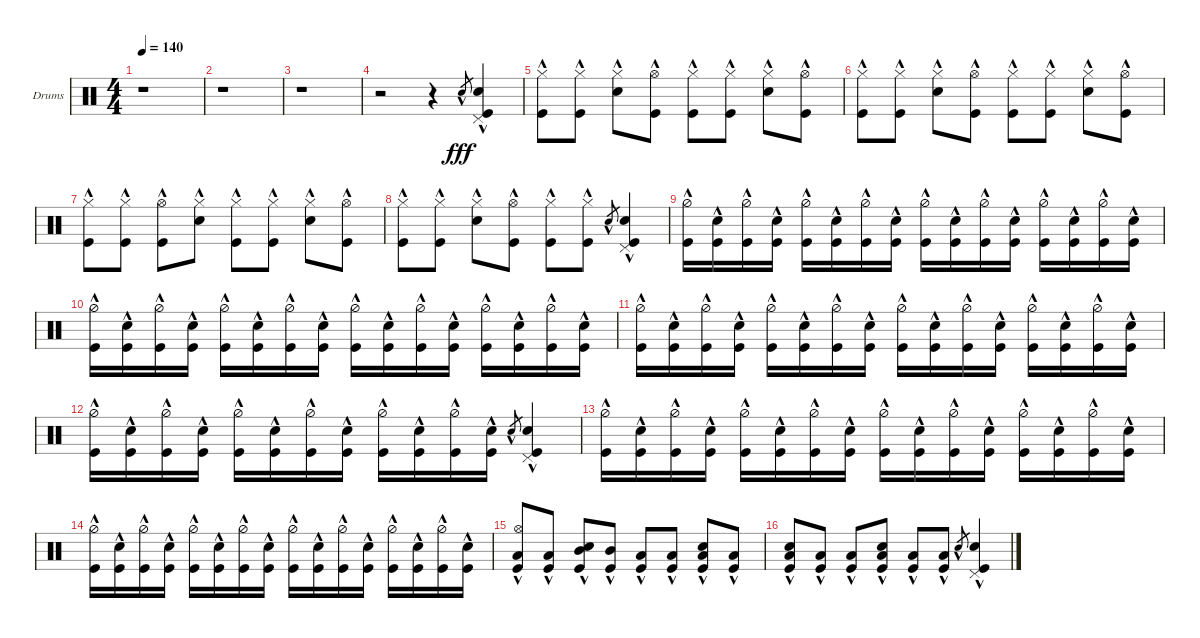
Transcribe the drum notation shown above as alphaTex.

\bracketExtendMode groupsimilarinstruments
\firstSystemTrackNameOrientation horizontal
\otherSystemsTrackNameOrientation horizontal
\track ("BigMc" "Drums") {instrument percussion}
\staff {score}
\articulation defaults
\ts (4 4)
\tempo 140
\clef neutral
\ks c
r.1{dy fff} |
r.1 |
r.1 |
r.2 r.4 "Snare (hit) 2"{hac}.8{gr} ("Snare (hit) 2"{hac} "Pedal Hi-Hat (hit)"{hac} "Kick (hit)"{hac}).4 |
("Hi-Hat (closed)"{hac} "Kick (hit)"{hac}).8 ("Hi-Hat (closed)"{hac} "Kick (hit)"{hac}).8 ("Hi-Hat (closed)"{hac} "Snare (hit) 2"{hac}).8 ("Hi-Hat (open)"{hac} "Kick (hit)"{hac}).8 ("Hi-Hat (closed)"{hac} "Kick (hit)"{hac}).8 ("Hi-Hat (closed)"{hac} "Kick (hit)"{hac}).8 ("Hi-Hat (closed)"{hac} "Snare (hit) 2"{hac}).8 ("Hi-Hat (open)"{hac} "Kick (hit)"{hac}).8 |
("Hi-Hat (closed)"{hac} "Kick (hit)"{hac}).8 ("Hi-Hat (closed)"{hac} "Kick (hit)"{hac}).8 ("Hi-Hat (closed)"{hac} "Snare (hit) 2"{hac}).8 ("Hi-Hat (open)"{hac} "Kick (hit)"{hac}).8 ("Hi-Hat (closed)"{hac} "Kick (hit)"{hac}).8 ("Hi-Hat (closed)"{hac} "Kick (hit)"{hac}).8 ("Hi-Hat (closed)"{hac} "Snare (hit) 2"{hac}).8 ("Hi-Hat (open)"{hac} "Kick (hit)"{hac}).8 |
("Hi-Hat (closed)"{hac} "Kick (hit)"{hac}).8 ("Hi-Hat (closed)"{hac} "Kick (hit)"{hac}).8 ("Hi-Hat (open)"{hac} "Kick (hit)"{hac}).8 ("Hi-Hat (closed)"{hac} "Snare (hit) 2"{hac}).8 ("Hi-Hat (closed)"{hac} "Kick (hit)"{hac}).8 ("Hi-Hat (closed)"{hac} "Kick (hit)"{hac}).8 ("Hi-Hat (closed)"{hac} "Snare (hit) 2"{hac}).8 ("Hi-Hat (open)"{hac} "Kick (hit)"{hac}).8 |
("Hi-Hat (closed)"{hac} "Kick (hit)"{hac}).8 ("Hi-Hat (closed)"{hac} "Kick (hit)"{hac}).8 ("Hi-Hat (closed)"{hac} "Snare (hit) 2"{hac}).8 ("Hi-Hat (open)"{hac} "Kick (hit)"{hac}).8 ("Hi-Hat (closed)"{hac} "Kick (hit)"{hac}).8 ("Hi-Hat (closed)"{hac} "Kick (hit)"{hac}).8 "Snare (hit) 2"{hac}.8{gr} ("Snare (hit) 2"{hac} "Pedal Hi-Hat (hit)"{hac} "Kick (hit)"{hac}).4 |
("Hi-Hat (half)"{hac} "Kick (hit)"{hac}).16 ("Snare (hit) 2"{hac} "Kick (hit)"{hac}).16 ("Hi-Hat (half)"{hac} "Kick (hit)"{hac}).16 ("Snare (hit) 2"{hac} "Kick (hit)"{hac}).16 ("Hi-Hat (half)"{hac} "Kick (hit)"{hac}).16 ("Snare (hit) 2"{hac} "Kick (hit)"{hac}).16 ("Hi-Hat (half)"{hac} "Kick (hit)"{hac}).16 ("Snare (hit) 2"{hac} "Kick (hit)"{hac}).16 ("Hi-Hat (half)"{hac} "Kick (hit)"{hac}).16 ("Snare (hit) 2"{hac} "Kick (hit)"{hac}).16 ("Hi-Hat (half)"{hac} "Kick (hit)"{hac}).16 ("Snare (hit) 2"{hac} "Kick (hit)"{hac}).16 ("Hi-Hat (half)"{hac} "Kick (hit)"{hac}).16 ("Snare (hit) 2"{hac} "Kick (hit)"{hac}).16 ("Hi-Hat (half)"{hac} "Kick (hit)"{hac}).16 ("Snare (hit) 2"{hac} "Kick (hit)"{hac}).16 |
("Hi-Hat (half)"{hac} "Kick (hit)"{hac}).16 ("Snare (hit) 2"{hac} "Kick (hit)"{hac}).16 ("Hi-Hat (half)"{hac} "Kick (hit)"{hac}).16 ("Snare (hit) 2"{hac} "Kick (hit)"{hac}).16 ("Hi-Hat (half)"{hac} "Kick (hit)"{hac}).16 ("Snare (hit) 2"{hac} "Kick (hit)"{hac}).16 ("Hi-Hat (half)"{hac} "Kick (hit)"{hac}).16 ("Snare (hit) 2"{hac} "Kick (hit)"{hac}).16 ("Hi-Hat (half)"{hac} "Kick (hit)"{hac}).16 ("Snare (hit) 2"{hac} "Kick (hit)"{hac}).16 ("Hi-Hat (half)"{hac} "Kick (hit)"{hac}).16 ("Snare (hit) 2"{hac} "Kick (hit)"{hac}).16 ("Hi-Hat (half)"{hac} "Kick (hit)"{hac}).16 ("Snare (hit) 2"{hac} "Kick (hit)"{hac}).16 ("Hi-Hat (half)"{hac} "Kick (hit)"{hac}).16 ("Snare (hit) 2"{hac} "Kick (hit)"{hac}).16 |
("Hi-Hat (half)"{hac} "Kick (hit)"{hac}).16 ("Snare (hit) 2"{hac} "Kick (hit)"{hac}).16 ("Hi-Hat (half)"{hac} "Kick (hit)"{hac}).16 ("Snare (hit) 2"{hac} "Kick (hit)"{hac}).16 ("Hi-Hat (half)"{hac} "Kick (hit)"{hac}).16 ("Snare (hit) 2"{hac} "Kick (hit)"{hac}).16 ("Hi-Hat (half)"{hac} "Kick (hit)"{hac}).16 ("Snare (hit) 2"{hac} "Kick (hit)"{hac}).16 ("Hi-Hat (half)"{hac} "Kick (hit)"{hac}).16 ("Snare (hit) 2"{hac} "Kick (hit)"{hac}).16 ("Hi-Hat (half)"{hac} "Kick (hit)"{hac}).16 ("Snare (hit) 2"{hac} "Kick (hit)"{hac}).16 ("Hi-Hat (half)"{hac} "Kick (hit)"{hac}).16 ("Snare (hit) 2"{hac} "Kick (hit)"{hac}).16 ("Hi-Hat (half)"{hac} "Kick (hit)"{hac}).16 ("Snare (hit) 2"{hac} "Kick (hit)"{hac}).16 |
("Hi-Hat (half)"{hac} "Kick (hit)"{hac}).16 ("Snare (hit) 2"{hac} "Kick (hit)"{hac}).16 ("Hi-Hat (half)"{hac} "Kick (hit)"{hac}).16 ("Snare (hit) 2"{hac} "Kick (hit)"{hac}).16 ("Hi-Hat (half)"{hac} "Kick (hit)"{hac}).16 ("Snare (hit) 2"{hac} "Kick (hit)"{hac}).16 ("Hi-Hat (half)"{hac} "Kick (hit)"{hac}).16 ("Snare (hit) 2"{hac} "Kick (hit)"{hac}).16 ("Hi-Hat (half)"{hac} "Kick (hit)"{hac}).16 ("Snare (hit) 2"{hac} "Kick (hit)"{hac}).16 ("Hi-Hat (half)"{hac} "Kick (hit)"{hac}).16 ("Snare (hit) 2"{hac} "Kick (hit)"{hac}).16 "Snare (hit) 2"{hac}.8{gr} ("Snare (hit) 2"{hac} "Pedal Hi-Hat (hit)"{hac} "Kick (hit)"{hac}).4 |
("Hi-Hat (half)"{hac} "Kick (hit)"{hac}).16 ("Snare (hit) 2"{hac} "Kick (hit)"{hac}).16 ("Hi-Hat (half)"{hac} "Kick (hit)"{hac}).16 ("Snare (hit) 2"{hac} "Kick (hit)"{hac}).16 ("Hi-Hat (half)"{hac} "Kick (hit)"{hac}).16 ("Snare (hit) 2"{hac} "Kick (hit)"{hac}).16 ("Hi-Hat (half)"{hac} "Kick (hit)"{hac}).16 ("Snare (hit) 2"{hac} "Kick (hit)"{hac}).16 ("Hi-Hat (half)"{hac} "Kick (hit)"{hac}).16 ("Snare (hit) 2"{hac} "Kick (hit)"{hac}).16 ("Hi-Hat (half)"{hac} "Kick (hit)"{hac}).16 ("Snare (hit) 2"{hac} "Kick (hit)"{hac}).16 ("Hi-Hat (half)"{hac} "Kick (hit)"{hac}).16 ("Snare (hit) 2"{hac} "Kick (hit)"{hac}).16 ("Hi-Hat (half)"{hac} "Kick (hit)"{hac}).16 ("Snare (hit) 2"{hac} "Kick (hit)"{hac}).16 |
("Hi-Hat (half)"{hac} "Kick (hit)"{hac}).16 ("Snare (hit) 2"{hac} "Kick (hit)"{hac}).16 ("Hi-Hat (half)"{hac} "Kick (hit)"{hac}).16 ("Snare (hit) 2"{hac} "Kick (hit)"{hac}).16 ("Hi-Hat (half)"{hac} "Kick (hit)"{hac}).16 ("Snare (hit) 2"{hac} "Kick (hit)"{hac}).16 ("Hi-Hat (half)"{hac} "Kick (hit)"{hac}).16 ("Snare (hit) 2"{hac} "Kick (hit)"{hac}).16 ("Hi-Hat (half)"{hac} "Kick (hit)"{hac}).16 ("Snare (hit) 2"{hac} "Kick (hit)"{hac}).16 ("Hi-Hat (half)"{hac} "Kick (hit)"{hac}).16 ("Snare (hit) 2"{hac} "Kick (hit)"{hac}).16 ("Hi-Hat (half)"{hac} "Kick (hit)"{hac}).16 ("Snare (hit) 2"{hac} "Kick (hit)"{hac}).16 ("Hi-Hat (half)"{hac} "Kick (hit)"{hac}).16 ("Snare (hit) 2"{hac} "Kick (hit)"{hac}).16 |
("Kick (hit)"{hac} "Hi-Hat (open)"{hac} "Low Tom (hit)"{hac}).8 ("Kick (hit)"{hac} "Low Tom (hit)"{hac}).8 ("Kick (hit)"{hac} "Mid Tom (hit)"{hac} "Snare (hit) 2"{hac}).8 ("Kick (hit)"{hac} "Mid Tom (hit)"{hac}).8 ("Kick (hit)"{hac} "Low Tom (hit)"{hac}).8 ("Kick (hit)"{hac} "Low Tom (hit)"{hac}).8 ("Kick (hit)"{hac} "Snare (hit) 2"{hac} "Low Tom (hit)"{hac}).8 ("Kick (hit)"{hac} "Low Tom (hit)"{hac}).8 |
("Kick (hit)"{hac} "Low Tom (hit)"{hac} "Snare (hit) 2"{hac}).8 ("Kick (hit)"{hac} "Low Tom (hit)"{hac}).8 ("Kick (hit)"{hac} "Low Tom (hit)"{hac}).8 ("Kick (hit)"{hac} "Low Tom (hit)"{hac} "Snare (hit) 2"{hac}).8 ("Kick (hit)"{hac} "Low Tom (hit)"{hac}).8 ("Kick (hit)"{hac} "Low Tom (hit)"{hac}).8 "Snare (hit) 2"{hac}.8{gr} ("Snare (hit) 2"{hac} "Pedal Hi-Hat (hit)"{hac} "Kick (hit)"{hac}).4
